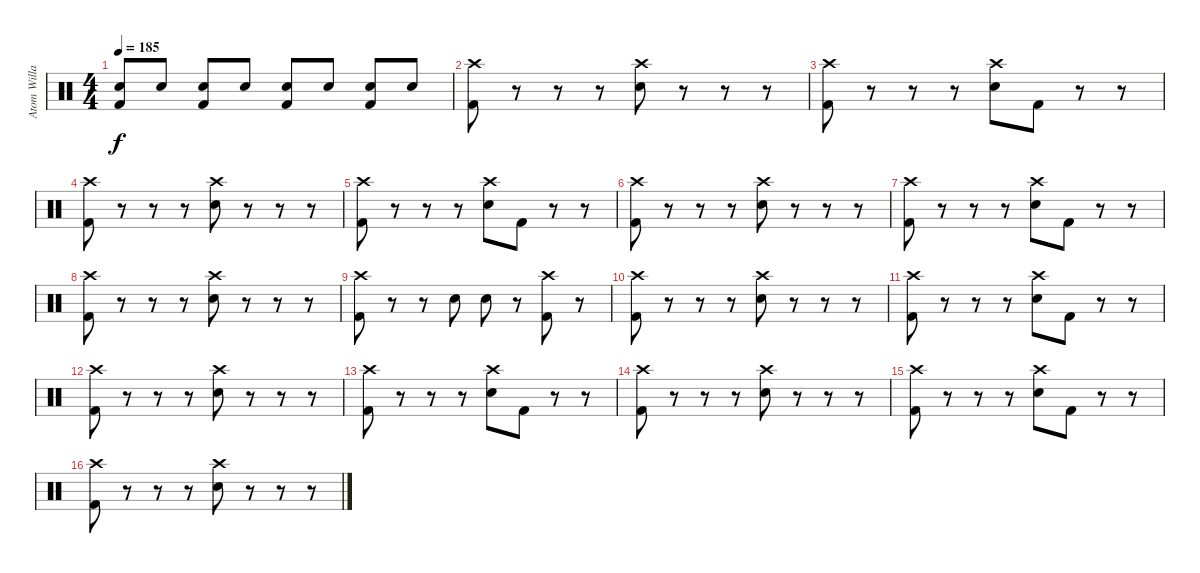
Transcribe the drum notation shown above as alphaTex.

\track ("Atom Willard Drums" "Atom Willa") {instrument percussion}
\staff {score}
\articulation defaults
\ts (4 4)
\tempo 185
\clef neutral
\ks c
("Electric Snare (hit)" "Kick (hit) 2").8{dy f} "Electric Snare (hit)".8 ("Electric Snare (hit)" "Kick (hit) 2").8 "Electric Snare (hit)".8 ("Electric Snare (hit)" "Kick (hit) 2").8 "Electric Snare (hit)".8 ("Electric Snare (hit)" "Kick (hit) 2").8 "Electric Snare (hit)".8 |
("Crash high (hit)" "Kick (hit) 2").8 r.8 r.8 r.8 ("Crash high (hit)" "Electric Snare (hit)").8 r.8 r.8 r.8 |
("Crash high (hit)" "Kick (hit) 2").8 r.8 r.8 r.8 ("Crash high (hit)" "Electric Snare (hit)").8 "Kick (hit) 2".8 r.8 r.8 |
("Crash high (hit)" "Kick (hit) 2").8 r.8 r.8 r.8 ("Crash high (hit)" "Electric Snare (hit)").8 r.8 r.8 r.8 |
("Crash high (hit)" "Kick (hit) 2").8 r.8 r.8 r.8 ("Crash high (hit)" "Electric Snare (hit)").8 "Kick (hit) 2".8 r.8 r.8 |
("Crash high (hit)" "Kick (hit) 2").8 r.8 r.8 r.8 ("Crash high (hit)" "Electric Snare (hit)").8 r.8 r.8 r.8 |
("Crash high (hit)" "Kick (hit) 2").8 r.8 r.8 r.8 ("Crash high (hit)" "Electric Snare (hit)").8 "Kick (hit) 2".8 r.8 r.8 |
("Crash high (hit)" "Kick (hit) 2").8 r.8 r.8 r.8 ("Crash high (hit)" "Electric Snare (hit)").8 r.8 r.8 r.8 |
("Crash high (hit)" "Kick (hit) 2").8 r.8 r.8 "Electric Snare (hit)".8 "Electric Snare (hit)".8 r.8 ("Crash high (hit)" "Kick (hit) 2").8 r.8 |
("Crash high (hit)" "Kick (hit) 2").8 r.8 r.8 r.8 ("Crash high (hit)" "Electric Snare (hit)").8 r.8 r.8 r.8 |
("Crash high (hit)" "Kick (hit) 2").8 r.8 r.8 r.8 ("Crash high (hit)" "Electric Snare (hit)").8 "Kick (hit) 2".8 r.8 r.8 |
("Crash high (hit)" "Kick (hit) 2").8 r.8 r.8 r.8 ("Crash high (hit)" "Electric Snare (hit)").8 r.8 r.8 r.8 |
("Crash high (hit)" "Kick (hit) 2").8 r.8 r.8 r.8 ("Crash high (hit)" "Electric Snare (hit)").8 "Kick (hit) 2".8 r.8 r.8 |
("Crash high (hit)" "Kick (hit) 2").8 r.8 r.8 r.8 ("Crash high (hit)" "Electric Snare (hit)").8 r.8 r.8 r.8 |
("Crash high (hit)" "Kick (hit) 2").8 r.8 r.8 r.8 ("Crash high (hit)" "Electric Snare (hit)").8 "Kick (hit) 2".8 r.8 r.8 |
("Crash high (hit)" "Kick (hit) 2").8 r.8 r.8 r.8 ("Crash high (hit)" "Electric Snare (hit)").8 r.8 r.8 r.8
